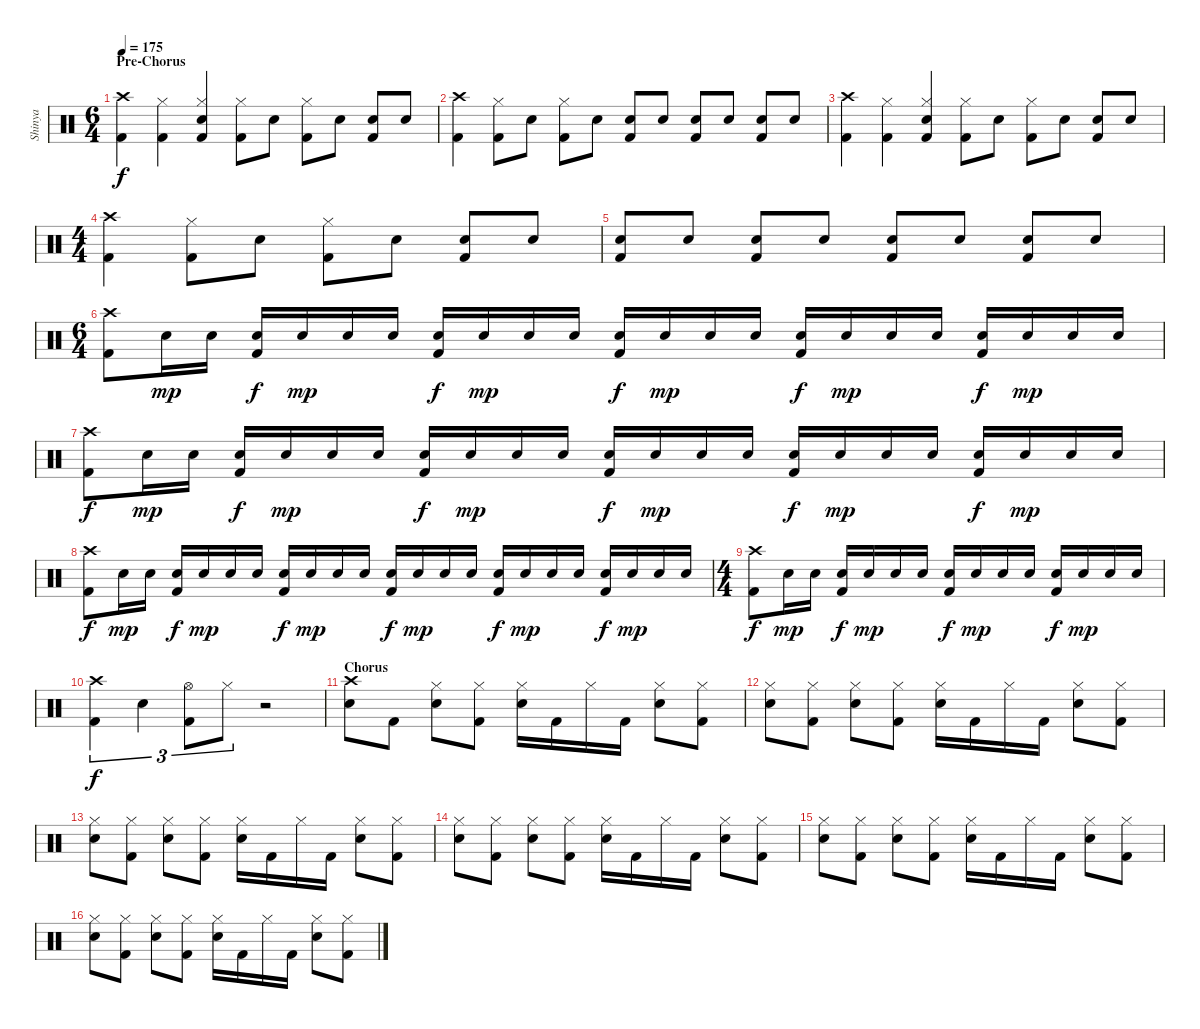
\track ("Shinya" "Shinya") {instrument percussion}
\staff {score}
\articulation defaults
\ts (6 4)
\section ("" "Pre-Chorus")
\tempo 175
\clef neutral
\ks c
("Crash high (hit)" "Kick (hit) 2").4{dy f} ("Hi-Hat (closed)" "Kick (hit) 2").4 ("Hi-Hat (closed)" "Snare (hit) 2" "Kick (hit) 2").4 ("Kick (hit) 2" "Hi-Hat (closed)").8 "Snare (hit) 2".8 ("Kick (hit) 2" "Hi-Hat (closed)").8 "Snare (hit) 2".8 ("Kick (hit) 2" "Snare (hit) 2").8 "Snare (hit) 2".8 |
("Kick (hit) 2" "Crash high (hit)").4 ("Kick (hit) 2" "Hi-Hat (closed)").8 "Snare (hit) 2".8 ("Kick (hit) 2" "Hi-Hat (closed)").8 "Snare (hit) 2".8 ("Kick (hit) 2" "Snare (hit) 2").8 "Snare (hit) 2".8 ("Kick (hit) 2" "Snare (hit) 2").8 "Snare (hit) 2".8 ("Kick (hit) 2" "Snare (hit) 2").8 "Snare (hit) 2".8 |
("Kick (hit) 2" "Crash high (hit)").4 ("Kick (hit) 2" "Hi-Hat (closed)").4 ("Kick (hit) 2" "Hi-Hat (closed)" "Snare (hit) 2").4 ("Kick (hit) 2" "Hi-Hat (closed)").8 "Snare (hit) 2".8 ("Kick (hit) 2" "Hi-Hat (closed)").8 "Snare (hit) 2".8 ("Kick (hit) 2" "Snare (hit) 2").8 "Snare (hit) 2".8 |
\ts (4 4)
("Crash high (hit)" "Kick (hit) 2").4 ("Kick (hit) 2" "Hi-Hat (closed)").8 "Snare (hit) 2".8 ("Kick (hit) 2" "Hi-Hat (closed)").8 "Snare (hit) 2".8 ("Kick (hit) 2" "Snare (hit) 2").8 "Snare (hit) 2".8 |
("Kick (hit) 2" "Snare (hit) 2").8 "Snare (hit) 2".8 ("Kick (hit) 2" "Snare (hit) 2").8 "Snare (hit) 2".8 ("Kick (hit) 2" "Snare (hit) 2").8 "Snare (hit) 2".8 ("Kick (hit) 2" "Snare (hit) 2").8 "Snare (hit) 2".8 |
\ts (6 4)
("Kick (hit) 2" "Crash high (hit)").8 "Snare (hit) 2".16{dy mp} "Snare (hit) 2".16 ("Kick (hit) 2" "Snare (hit) 2").16{dy f} "Snare (hit) 2".16{dy mp} "Snare (hit) 2".16 "Snare (hit) 2".16 ("Kick (hit) 2" "Snare (hit) 2").16{dy f} "Snare (hit) 2".16{dy mp} "Snare (hit) 2".16 "Snare (hit) 2".16 ("Kick (hit) 2" "Snare (hit) 2").16{dy f} "Snare (hit) 2".16{dy mp} "Snare (hit) 2".16 "Snare (hit) 2".16 ("Kick (hit) 2" "Snare (hit) 2").16{dy f} "Snare (hit) 2".16{dy mp} "Snare (hit) 2".16 "Snare (hit) 2".16 ("Kick (hit) 2" "Snare (hit) 2").16{dy f} "Snare (hit) 2".16{dy mp} "Snare (hit) 2".16 "Snare (hit) 2".16 |
("Kick (hit) 2" "Crash high (hit)").8{dy f} "Snare (hit) 2".16{dy mp} "Snare (hit) 2".16 ("Kick (hit) 2" "Snare (hit) 2").16{dy f} "Snare (hit) 2".16{dy mp} "Snare (hit) 2".16 "Snare (hit) 2".16 ("Kick (hit) 2" "Snare (hit) 2").16{dy f} "Snare (hit) 2".16{dy mp} "Snare (hit) 2".16 "Snare (hit) 2".16 ("Kick (hit) 2" "Snare (hit) 2").16{dy f} "Snare (hit) 2".16{dy mp} "Snare (hit) 2".16 "Snare (hit) 2".16 ("Kick (hit) 2" "Snare (hit) 2").16{dy f} "Snare (hit) 2".16{dy mp} "Snare (hit) 2".16 "Snare (hit) 2".16 ("Kick (hit) 2" "Snare (hit) 2").16{dy f} "Snare (hit) 2".16{dy mp} "Snare (hit) 2".16 "Snare (hit) 2".16 |
("Kick (hit) 2" "Crash high (hit)").8{dy f} "Snare (hit) 2".16{dy mp} "Snare (hit) 2".16 ("Kick (hit) 2" "Snare (hit) 2").16{dy f} "Snare (hit) 2".16{dy mp} "Snare (hit) 2".16 "Snare (hit) 2".16 ("Kick (hit) 2" "Snare (hit) 2").16{dy f} "Snare (hit) 2".16{dy mp} "Snare (hit) 2".16 "Snare (hit) 2".16 ("Kick (hit) 2" "Snare (hit) 2").16{dy f} "Snare (hit) 2".16{dy mp} "Snare (hit) 2".16 "Snare (hit) 2".16 ("Kick (hit) 2" "Snare (hit) 2").16{dy f} "Snare (hit) 2".16{dy mp} "Snare (hit) 2".16 "Snare (hit) 2".16 ("Kick (hit) 2" "Snare (hit) 2").16{dy f} "Snare (hit) 2".16{dy mp} "Snare (hit) 2".16 "Snare (hit) 2".16 |
\ts (4 4)
("Kick (hit) 2" "Crash high (hit)").8{dy f} "Snare (hit) 2".16{dy mp} "Snare (hit) 2".16 ("Kick (hit) 2" "Snare (hit) 2").16{dy f} "Snare (hit) 2".16{dy mp} "Snare (hit) 2".16 "Snare (hit) 2".16 ("Kick (hit) 2" "Snare (hit) 2").16{dy f} "Snare (hit) 2".16{dy mp} "Snare (hit) 2".16 "Snare (hit) 2".16 ("Kick (hit) 2" "Snare (hit) 2").16{dy f} "Snare (hit) 2".16{dy mp} "Snare (hit) 2".16 "Snare (hit) 2".16 |
("Crash high (hit)" "Kick (hit) 2").4{tu (3 2) dy f} "Snare (hit) 2".4{tu (3 2)} ("Hi-Hat (open)" "Kick (hit) 2").8{tu (3 2)} "Hi-Hat (closed)".8{tu (3 2)} r.2 |
\section ("" "Chorus")
("Crash high (hit)" "Snare (hit) 2").8 "Kick (hit) 2".8 ("Hi-Hat (closed)" "Snare (hit) 2").8 ("Hi-Hat (closed)" "Kick (hit) 2").8 ("Hi-Hat (closed)" "Snare (hit) 2").16 "Kick (hit) 2".16 "Hi-Hat (closed)".16 "Kick (hit) 2".16 ("Hi-Hat (closed)" "Snare (hit) 2").8 ("Hi-Hat (closed)" "Kick (hit) 2").8 |
("Hi-Hat (closed)" "Snare (hit) 2").8 ("Hi-Hat (closed)" "Kick (hit) 2").8 ("Hi-Hat (closed)" "Snare (hit) 2").8 ("Hi-Hat (closed)" "Kick (hit) 2").8 ("Hi-Hat (closed)" "Snare (hit) 2").16 "Kick (hit) 2".16 "Hi-Hat (closed)".16 "Kick (hit) 2".16 ("Hi-Hat (closed)" "Snare (hit) 2").8 ("Hi-Hat (closed)" "Kick (hit) 2").8 |
("Hi-Hat (closed)" "Snare (hit) 2").8 ("Hi-Hat (closed)" "Kick (hit) 2").8 ("Hi-Hat (closed)" "Snare (hit) 2").8 ("Hi-Hat (closed)" "Kick (hit) 2").8 ("Hi-Hat (closed)" "Snare (hit) 2").16 "Kick (hit) 2".16 "Hi-Hat (closed)".16 "Kick (hit) 2".16 ("Hi-Hat (closed)" "Snare (hit) 2").8 ("Hi-Hat (closed)" "Kick (hit) 2").8 |
("Hi-Hat (closed)" "Snare (hit) 2").8 ("Hi-Hat (closed)" "Kick (hit) 2").8 ("Hi-Hat (closed)" "Snare (hit) 2").8 ("Hi-Hat (closed)" "Kick (hit) 2").8 ("Hi-Hat (closed)" "Snare (hit) 2").16 "Kick (hit) 2".16 "Hi-Hat (closed)".16 "Kick (hit) 2".16 ("Hi-Hat (closed)" "Snare (hit) 2").8 ("Hi-Hat (closed)" "Kick (hit) 2").8 |
("Hi-Hat (closed)" "Snare (hit) 2").8 ("Hi-Hat (closed)" "Kick (hit) 2").8 ("Hi-Hat (closed)" "Snare (hit) 2").8 ("Hi-Hat (closed)" "Kick (hit) 2").8 ("Hi-Hat (closed)" "Snare (hit) 2").16 "Kick (hit) 2".16 "Hi-Hat (closed)".16 "Kick (hit) 2".16 ("Hi-Hat (closed)" "Snare (hit) 2").8 ("Hi-Hat (closed)" "Kick (hit) 2").8 |
("Hi-Hat (closed)" "Snare (hit) 2").8 ("Hi-Hat (closed)" "Kick (hit) 2").8 ("Hi-Hat (closed)" "Snare (hit) 2").8 ("Hi-Hat (closed)" "Kick (hit) 2").8 ("Hi-Hat (closed)" "Snare (hit) 2").16 "Kick (hit) 2".16 "Hi-Hat (closed)".16 "Kick (hit) 2".16 ("Hi-Hat (closed)" "Snare (hit) 2").8 ("Hi-Hat (closed)" "Kick (hit) 2").8
